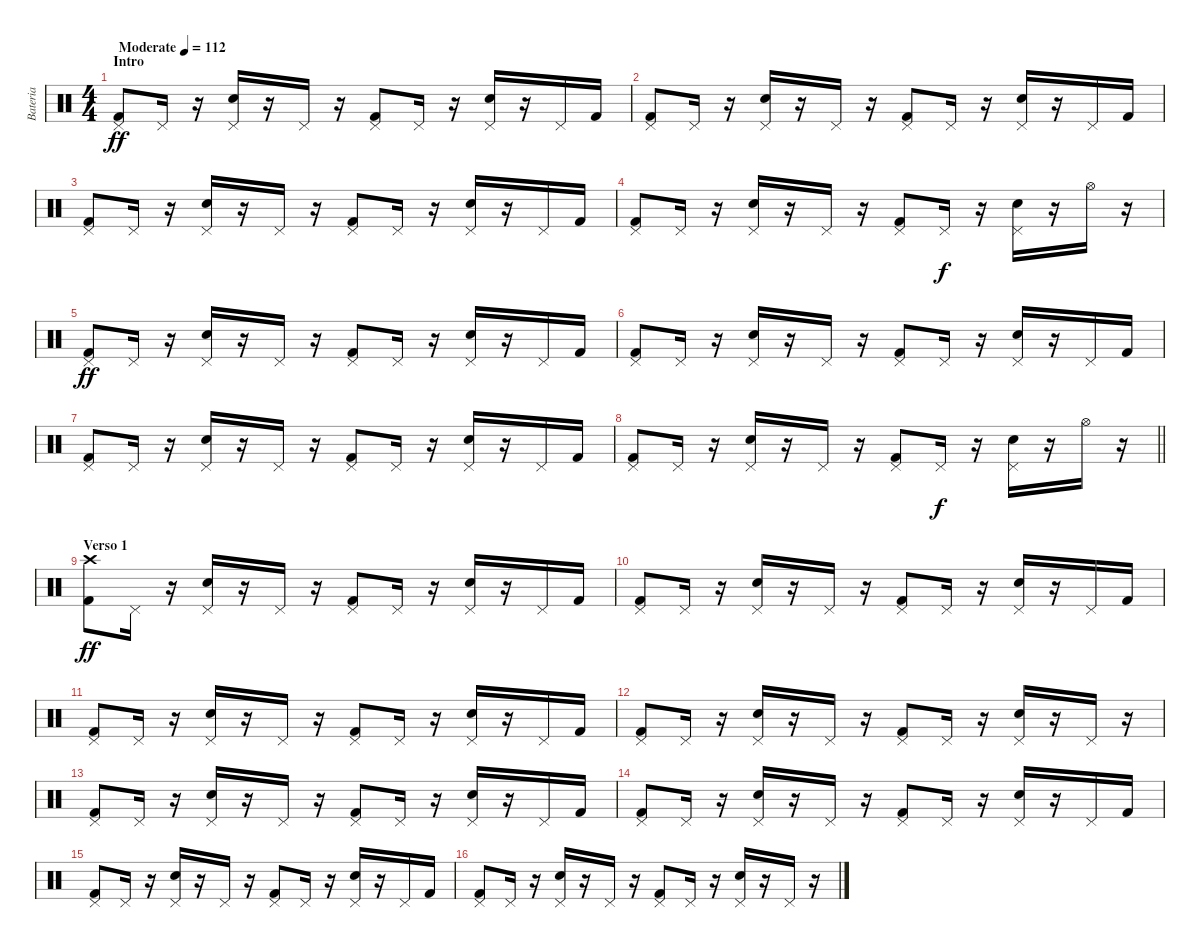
\track ("Bateria" "Bateria") {instrument percussion}
\staff {score}
\articulation defaults
\ts (4 4)
\section ("" "Intro")
\tempo (112 "Moderate")
\clef neutral
\ks c
("Kick (hit) 2" "Pedal Hi-Hat (hit)").8{dy ff} "Pedal Hi-Hat (hit)".16 r.16 ("Snare (hit) 2" "Pedal Hi-Hat (hit)").16 r.16 "Pedal Hi-Hat (hit)".16 r.16 ("Pedal Hi-Hat (hit)" "Kick (hit) 2").8 "Pedal Hi-Hat (hit)".16 r.16 ("Pedal Hi-Hat (hit)" "Snare (hit) 2").16 r.16 "Pedal Hi-Hat (hit)".16 "Kick (hit) 2".16 |
("Pedal Hi-Hat (hit)" "Kick (hit) 2").8 "Pedal Hi-Hat (hit)".16 r.16 ("Pedal Hi-Hat (hit)" "Snare (hit) 2").16 r.16 "Pedal Hi-Hat (hit)".16 r.16 ("Pedal Hi-Hat (hit)" "Kick (hit) 2").8 "Pedal Hi-Hat (hit)".16 r.16 ("Pedal Hi-Hat (hit)" "Snare (hit) 2").16 r.16 "Pedal Hi-Hat (hit)".16 "Kick (hit) 2".16 |
("Pedal Hi-Hat (hit)" "Kick (hit) 2").8 "Pedal Hi-Hat (hit)".16 r.16 ("Pedal Hi-Hat (hit)" "Snare (hit) 2").16 r.16 "Pedal Hi-Hat (hit)".16 r.16 ("Pedal Hi-Hat (hit)" "Kick (hit) 2").8 "Pedal Hi-Hat (hit)".16 r.16 ("Pedal Hi-Hat (hit)" "Snare (hit) 2").16 r.16 "Pedal Hi-Hat (hit)".16 "Kick (hit) 2".16 |
("Pedal Hi-Hat (hit)" "Kick (hit) 2").8 "Pedal Hi-Hat (hit)".16 r.16 ("Pedal Hi-Hat (hit)" "Snare (hit) 2").16 r.16 "Pedal Hi-Hat (hit)".16 r.16 ("Pedal Hi-Hat (hit)" "Kick (hit) 2").8 "Pedal Hi-Hat (hit)".16{dy f} r.16 ("Pedal Hi-Hat (hit)" "Snare (hit) 2").16 r.16 "Hi-Hat (open)".16 r.16 |
("Kick (hit) 2" "Pedal Hi-Hat (hit)").8{dy ff} "Pedal Hi-Hat (hit)".16 r.16 ("Snare (hit) 2" "Pedal Hi-Hat (hit)").16 r.16 "Pedal Hi-Hat (hit)".16 r.16 ("Pedal Hi-Hat (hit)" "Kick (hit) 2").8 "Pedal Hi-Hat (hit)".16 r.16 ("Pedal Hi-Hat (hit)" "Snare (hit) 2").16 r.16 "Pedal Hi-Hat (hit)".16 "Kick (hit) 2".16 |
("Pedal Hi-Hat (hit)" "Kick (hit) 2").8 "Pedal Hi-Hat (hit)".16 r.16 ("Pedal Hi-Hat (hit)" "Snare (hit) 2").16 r.16 "Pedal Hi-Hat (hit)".16 r.16 ("Pedal Hi-Hat (hit)" "Kick (hit) 2").8 "Pedal Hi-Hat (hit)".16 r.16 ("Pedal Hi-Hat (hit)" "Snare (hit) 2").16 r.16 "Pedal Hi-Hat (hit)".16 "Kick (hit) 2".16 |
("Pedal Hi-Hat (hit)" "Kick (hit) 2").8 "Pedal Hi-Hat (hit)".16 r.16 ("Pedal Hi-Hat (hit)" "Snare (hit) 2").16 r.16 "Pedal Hi-Hat (hit)".16 r.16 ("Pedal Hi-Hat (hit)" "Kick (hit) 2").8 "Pedal Hi-Hat (hit)".16 r.16 ("Pedal Hi-Hat (hit)" "Snare (hit) 2").16 r.16 "Pedal Hi-Hat (hit)".16 "Kick (hit) 2".16 |
\barLineRight lightlight
("Pedal Hi-Hat (hit)" "Kick (hit) 2").8 "Pedal Hi-Hat (hit)".16 r.16 ("Pedal Hi-Hat (hit)" "Snare (hit) 2").16 r.16 "Pedal Hi-Hat (hit)".16 r.16 ("Pedal Hi-Hat (hit)" "Kick (hit) 2").8 "Pedal Hi-Hat (hit)".16{dy f} r.16 ("Pedal Hi-Hat (hit)" "Snare (hit) 2").16 r.16 "Hi-Hat (open)".16 r.16 |
\section ("" "Verso 1")
("Crash high (hit)" "Kick (hit) 2").8{dy ff} "Pedal Hi-Hat (hit)".16 r.16 ("Snare (hit) 2" "Pedal Hi-Hat (hit)").16 r.16 "Pedal Hi-Hat (hit)".16 r.16 ("Pedal Hi-Hat (hit)" "Kick (hit) 2").8 "Pedal Hi-Hat (hit)".16 r.16 ("Pedal Hi-Hat (hit)" "Snare (hit) 2").16 r.16 "Pedal Hi-Hat (hit)".16 "Kick (hit) 2".16 |
("Pedal Hi-Hat (hit)" "Kick (hit) 2").8 "Pedal Hi-Hat (hit)".16 r.16 ("Pedal Hi-Hat (hit)" "Snare (hit) 2").16 r.16 "Pedal Hi-Hat (hit)".16 r.16 ("Pedal Hi-Hat (hit)" "Kick (hit) 2").8 "Pedal Hi-Hat (hit)".16 r.16 ("Pedal Hi-Hat (hit)" "Snare (hit) 2").16 r.16 "Pedal Hi-Hat (hit)".16 "Kick (hit) 2".16 |
("Pedal Hi-Hat (hit)" "Kick (hit) 2").8 "Pedal Hi-Hat (hit)".16 r.16 ("Pedal Hi-Hat (hit)" "Snare (hit) 2").16 r.16 "Pedal Hi-Hat (hit)".16 r.16 ("Pedal Hi-Hat (hit)" "Kick (hit) 2").8 "Pedal Hi-Hat (hit)".16 r.16 ("Pedal Hi-Hat (hit)" "Snare (hit) 2").16 r.16 "Pedal Hi-Hat (hit)".16 "Kick (hit) 2".16 |
("Pedal Hi-Hat (hit)" "Kick (hit) 2").8 "Pedal Hi-Hat (hit)".16 r.16 ("Pedal Hi-Hat (hit)" "Snare (hit) 2").16 r.16 "Pedal Hi-Hat (hit)".16 r.16 ("Pedal Hi-Hat (hit)" "Kick (hit) 2").8 "Pedal Hi-Hat (hit)".16 r.16 ("Pedal Hi-Hat (hit)" "Snare (hit) 2").16 r.16 "Pedal Hi-Hat (hit)".16 r.16 |
("Kick (hit) 2" "Pedal Hi-Hat (hit)").8 "Pedal Hi-Hat (hit)".16 r.16 ("Snare (hit) 2" "Pedal Hi-Hat (hit)").16 r.16 "Pedal Hi-Hat (hit)".16 r.16 ("Pedal Hi-Hat (hit)" "Kick (hit) 2").8 "Pedal Hi-Hat (hit)".16 r.16 ("Pedal Hi-Hat (hit)" "Snare (hit) 2").16 r.16 "Pedal Hi-Hat (hit)".16 "Kick (hit) 2".16 |
("Pedal Hi-Hat (hit)" "Kick (hit) 2").8 "Pedal Hi-Hat (hit)".16 r.16 ("Pedal Hi-Hat (hit)" "Snare (hit) 2").16 r.16 "Pedal Hi-Hat (hit)".16 r.16 ("Pedal Hi-Hat (hit)" "Kick (hit) 2").8 "Pedal Hi-Hat (hit)".16 r.16 ("Pedal Hi-Hat (hit)" "Snare (hit) 2").16 r.16 "Pedal Hi-Hat (hit)".16 "Kick (hit) 2".16 |
("Pedal Hi-Hat (hit)" "Kick (hit) 2").8 "Pedal Hi-Hat (hit)".16 r.16 ("Pedal Hi-Hat (hit)" "Snare (hit) 2").16 r.16 "Pedal Hi-Hat (hit)".16 r.16 ("Pedal Hi-Hat (hit)" "Kick (hit) 2").8 "Pedal Hi-Hat (hit)".16 r.16 ("Pedal Hi-Hat (hit)" "Snare (hit) 2").16 r.16 "Pedal Hi-Hat (hit)".16 "Kick (hit) 2".16 |
("Pedal Hi-Hat (hit)" "Kick (hit) 2").8 "Pedal Hi-Hat (hit)".16 r.16 ("Pedal Hi-Hat (hit)" "Snare (hit) 2").16 r.16 "Pedal Hi-Hat (hit)".16 r.16 ("Pedal Hi-Hat (hit)" "Kick (hit) 2").8 "Pedal Hi-Hat (hit)".16 r.16 ("Pedal Hi-Hat (hit)" "Snare (hit) 2").16 r.16 "Pedal Hi-Hat (hit)".16 r.16
